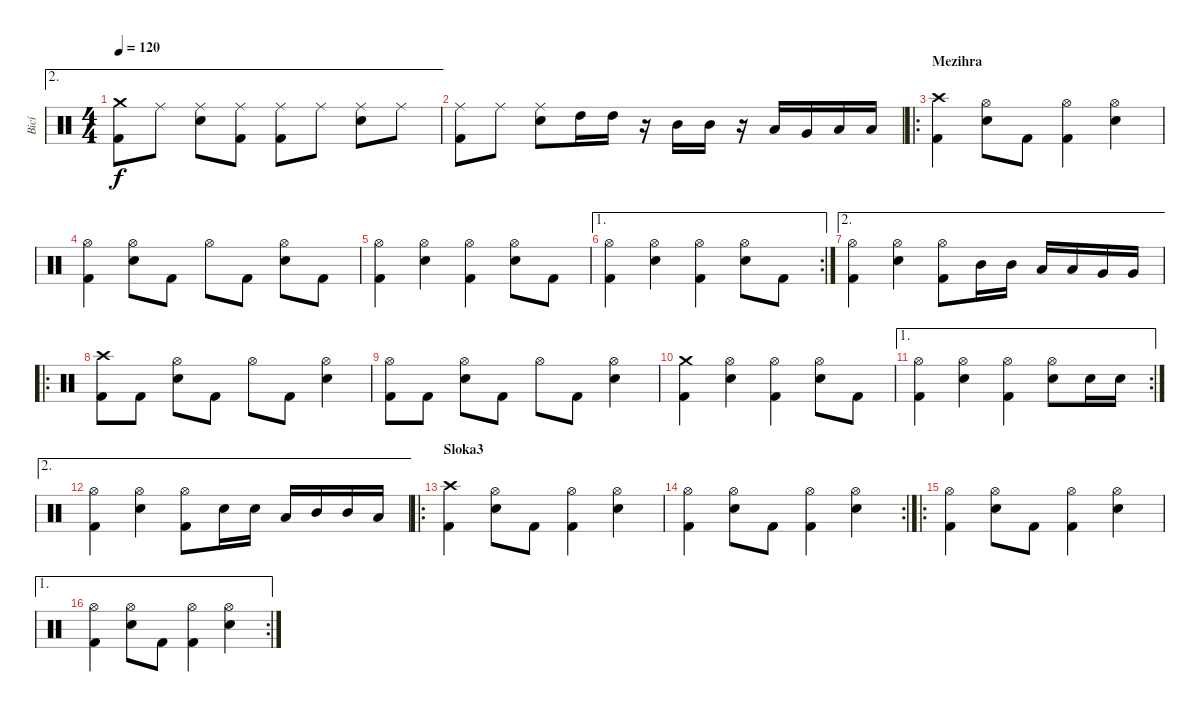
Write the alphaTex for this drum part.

\track ("Bicí" "Bicí") {instrument percussion}
\staff {score}
\articulation defaults
\ae 2
\ts (4 4)
\tempo 120
\clef neutral
\ks c
("Crash medium (hit)" "Kick (hit) 2").8{dy f} "Ride (middle)".8 ("Ride (middle)" "Snare (hit) 2").8 ("Ride (middle)" "Kick (hit) 2").8 ("Ride (middle)" "Kick (hit) 2").8 "Ride (middle)".8 ("Ride (middle)" "Snare (hit) 2").8 "Ride (middle)".8 |
("Ride (middle)" "Kick (hit) 2").8 "Ride (middle)".8 ("Ride (middle)" "Snare (hit) 2").8 "High Tom (hit)".16{balance 0} "High Tom (hit)".16 r.16 "Mid Tom (hit)".16{balance 8} "Mid Tom (hit)".16 r.16 "Low Tom (hit)".16{balance 16} "Very Low Tom (hit)".16 "Low Floor Tom (hit)".16 "Low Floor Tom (hit)".16 |
\ro
\section ("" "Mezihra")
("Crash high (hit)" "Kick (hit) 2").4{balance 8} ("Hi-Hat (open)" "Snare (hit) 2").8 "Kick (hit) 2".8 ("Hi-Hat (open)" "Kick (hit) 2").4 ("Hi-Hat (open)" "Snare (hit) 2").4 |
("Hi-Hat (open)" "Kick (hit) 2").4 ("Hi-Hat (open)" "Snare (hit) 2").8 "Kick (hit) 2".8 "Hi-Hat (open)".8 "Kick (hit) 2".8 ("Hi-Hat (open)" "Snare (hit) 2").8 "Kick (hit) 2".8 |
("Hi-Hat (open)" "Kick (hit) 2").4 ("Hi-Hat (open)" "Snare (hit) 2").4 ("Hi-Hat (open)" "Kick (hit) 2").4 ("Hi-Hat (open)" "Snare (hit) 2").8 "Kick (hit) 2".8 |
\ae 1
\rc 2
("Hi-Hat (open)" "Kick (hit) 2").4 ("Hi-Hat (open)" "Snare (hit) 2").4 ("Hi-Hat (open)" "Kick (hit) 2").4 ("Hi-Hat (open)" "Snare (hit) 2").8 "Kick (hit) 2".8 |
\ae 2
("Hi-Hat (open)" "Kick (hit) 2").4 ("Hi-Hat (open)" "Snare (hit) 2").4 ("Hi-Hat (open)" "Kick (hit) 2").8 "Mid Tom (hit)".16{balance 0} "Mid Tom (hit)".16 "Low Tom (hit)".16{balance 8} "Low Tom (hit)".16 "Very Low Tom (hit)".16{balance 16} "Very Low Tom (hit)".16 |
\ro
("Crash high (hit)" "Kick (hit) 2").8{balance 8} "Kick (hit) 2".8 ("Hi-Hat (open)" "Snare (hit) 2").8 "Kick (hit) 2".8 "Hi-Hat (open)".8 "Kick (hit) 2".8 ("Hi-Hat (open)" "Snare (hit) 2").4 |
("Hi-Hat (open)" "Kick (hit) 2").8 "Kick (hit) 2".8 ("Hi-Hat (open)" "Snare (hit) 2").8 "Kick (hit) 2".8 "Hi-Hat (open)".8 "Kick (hit) 2".8 ("Hi-Hat (open)" "Snare (hit) 2").4 |
("Crash medium (hit)" "Kick (hit) 2").4 ("Hi-Hat (open)" "Snare (hit) 2").4 ("Hi-Hat (open)" "Kick (hit) 2").4 ("Hi-Hat (open)" "Snare (hit) 2").8 "Kick (hit) 2".8 |
\ae 1
\rc 2
("Hi-Hat (open)" "Kick (hit) 2").4 ("Hi-Hat (open)" "Snare (hit) 2").4 ("Hi-Hat (open)" "Kick (hit) 2").4 ("Hi-Hat (open)" "Snare (hit) 2").8 "Snare (hit) 2".16 "Snare (hit) 2".16 |
\ae 2
("Hi-Hat (open)" "Kick (hit) 2").4 ("Hi-Hat (open)" "Snare (hit) 2").4 ("Hi-Hat (open)" "Kick (hit) 2").8 "Snare (hit) 2".16 "Snare (hit) 2".16 "Low Tom (hit)".16{balance 0} "Mid Tom (hit)".16{balance 16} "Mid Tom (hit)".16 "Low Tom (hit)".16{balance 0} |
\ro
\section ("" "Sloka3")
("Crash high (hit)" "Kick (hit) 2").4{balance 8} ("Hi-Hat (open)" "Snare (hit) 2").8 "Kick (hit) 2".8 ("Hi-Hat (open)" "Kick (hit) 2").4 ("Hi-Hat (open)" "Snare (hit) 2").4 |
\rc 2
("Hi-Hat (open)" "Kick (hit) 2").4 ("Hi-Hat (open)" "Snare (hit) 2").8 "Kick (hit) 2".8 ("Hi-Hat (open)" "Kick (hit) 2").4 ("Hi-Hat (open)" "Snare (hit) 2").4 |
\ro
("Hi-Hat (open)" "Kick (hit) 2").4 ("Hi-Hat (open)" "Snare (hit) 2").8 "Kick (hit) 2".8 ("Hi-Hat (open)" "Kick (hit) 2").4 ("Hi-Hat (open)" "Snare (hit) 2").4 |
\ae 1
\rc 2
("Hi-Hat (open)" "Kick (hit) 2").4 ("Hi-Hat (open)" "Snare (hit) 2").8 "Kick (hit) 2".8 ("Hi-Hat (open)" "Kick (hit) 2").4 ("Hi-Hat (open)" "Snare (hit) 2").4
